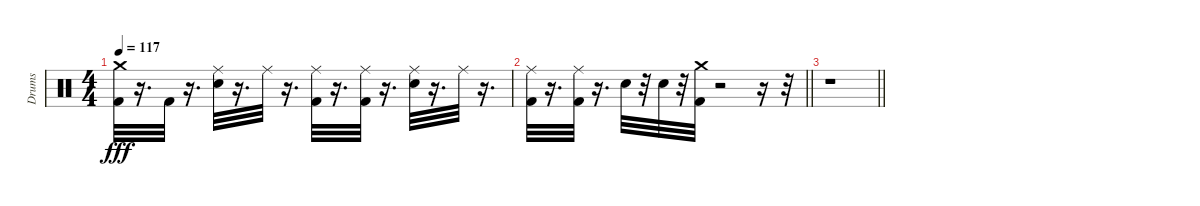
\track ("Drums" "Drums") {instrument percussion}
\staff {score}
\articulation defaults
\ts (4 4)
\tempo 117
\clef neutral
\ks c
("Kick (hit) 2" "Crash medium (hit)").32{dy fff} r.16{d} "Kick (hit) 2".32 r.16{d} ("Electric Snare (hit)" "Ride (middle)").32 r.16{d} "Ride (middle)".32 r.16{d} ("Kick (hit) 2" "Ride (middle)").32 r.16{d} ("Kick (hit) 2" "Ride (middle)").32 r.16{d} ("Electric Snare (hit)" "Ride (middle)").32 r.16{d} "Ride (middle)".32 r.16{d} |
\barLineRight lightlight
("Kick (hit) 2" "Ride (middle)").32 r.16{d} ("Kick (hit) 2" "Ride (middle)").32 r.16{d} "Electric Snare (hit)".32 r.32 "Electric Snare (hit)".32 r.32 ("Crash medium (hit)" "Kick (hit) 2").32 r.2 r.16 r.32 |
\barLineRight lightlight
r.1
